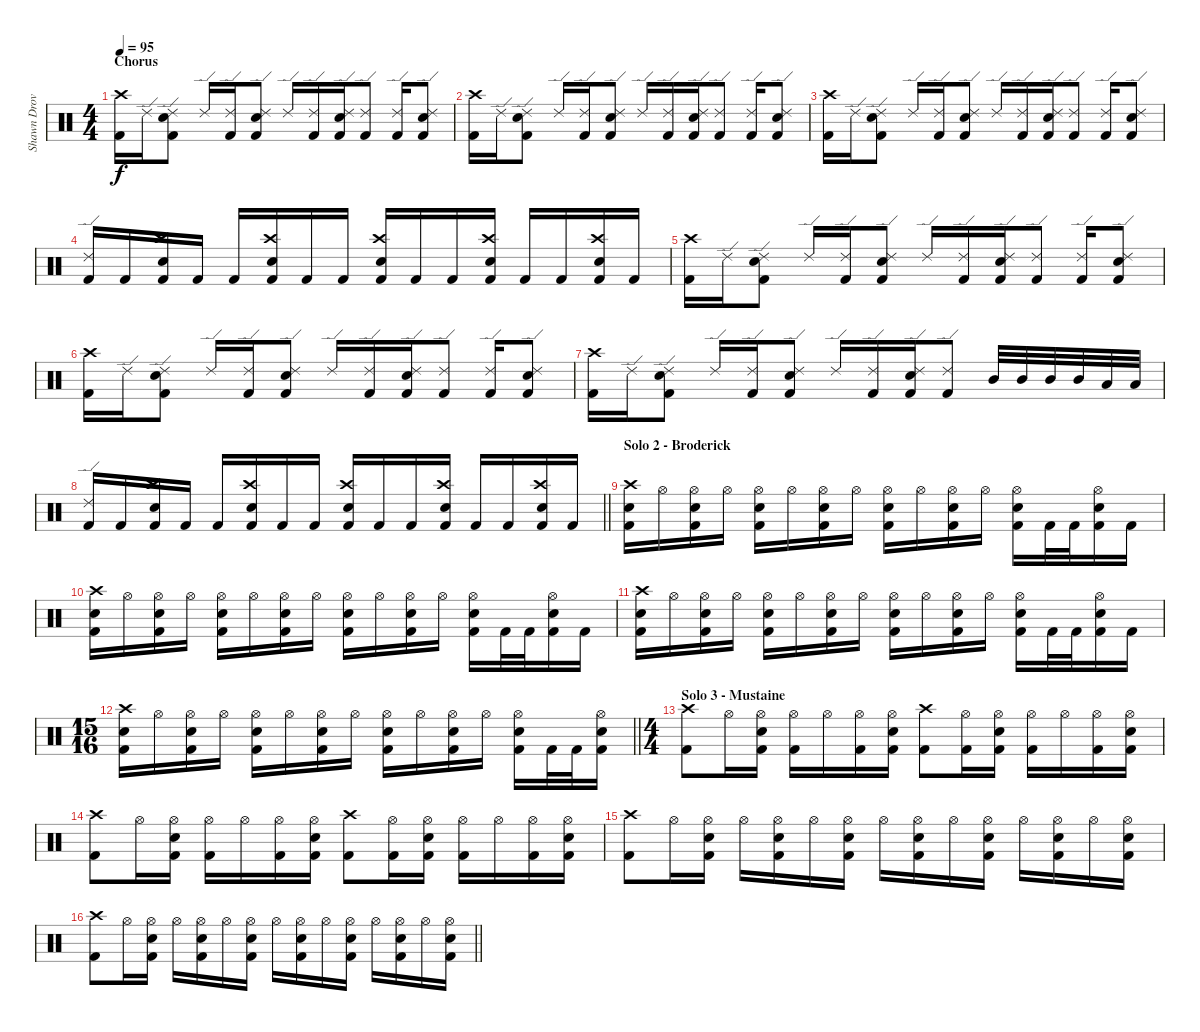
\track ("Shawn Drover " "Shawn Drov") {instrument percussion}
\staff {score}
\articulation defaults
\ts (4 4)
\section ("" "Chorus")
\tempo 95
\clef neutral
\ks c
("Kick (hit) 2" "Crash high (hit)").16{dy f} "Ride (edge) 2".16 ("Kick (hit) 2" "Snare (hit) 2" "Ride (edge) 2").8 "Ride (edge) 2".16 ("Kick (hit) 2" "Ride (edge) 2").16 ("Kick (hit) 2" "Snare (hit) 2" "Ride (edge) 2").8 "Ride (edge) 2".16 ("Kick (hit) 2" "Ride (edge) 2").16 ("Kick (hit) 2" "Snare (hit) 2" "Ride (edge) 2").16 ("Kick (hit) 2" "Ride (edge) 2").8 ("Kick (hit) 2" "Ride (edge) 2").16 ("Kick (hit) 2" "Snare (hit) 2" "Ride (edge) 2").8 |
("Kick (hit) 2" "Crash high (hit)").16 "Ride (edge) 2".16 ("Kick (hit) 2" "Snare (hit) 2" "Ride (edge) 2").8 "Ride (edge) 2".16 ("Kick (hit) 2" "Ride (edge) 2").16 ("Kick (hit) 2" "Snare (hit) 2" "Ride (edge) 2").8 "Ride (edge) 2".16 ("Kick (hit) 2" "Ride (edge) 2").16 ("Kick (hit) 2" "Snare (hit) 2" "Ride (edge) 2").16 ("Kick (hit) 2" "Ride (edge) 2").8 ("Kick (hit) 2" "Ride (edge) 2").16 ("Kick (hit) 2" "Snare (hit) 2" "Ride (edge) 2").8 |
("Kick (hit) 2" "Crash high (hit)").16 "Ride (edge) 2".16 ("Kick (hit) 2" "Snare (hit) 2" "Ride (edge) 2").8 "Ride (edge) 2".16 ("Kick (hit) 2" "Ride (edge) 2").16 ("Kick (hit) 2" "Snare (hit) 2" "Ride (edge) 2").8 "Ride (edge) 2".16 ("Kick (hit) 2" "Ride (edge) 2").16 ("Kick (hit) 2" "Snare (hit) 2" "Ride (edge) 2").16 ("Kick (hit) 2" "Ride (edge) 2").8 ("Kick (hit) 2" "Ride (edge) 2").16 ("Kick (hit) 2" "Snare (hit) 2" "Ride (edge) 2").8 |
("Kick (hit) 2" "Ride (edge) 2").16 "Kick (hit) 2".16 ("Kick (hit) 2" "Snare (hit) 2" "Crash high (hit)").16 "Kick (hit) 2".16 "Kick (hit) 2".16 ("Kick (hit) 2" "Snare (hit) 2" "Crash high (hit)").16 "Kick (hit) 2".16 "Kick (hit) 2".16 ("Kick (hit) 2" "Snare (hit) 2" "Crash high (hit)").16 "Kick (hit) 2".16 "Kick (hit) 2".16 ("Kick (hit) 2" "Snare (hit) 2" "Crash high (hit)").16 "Kick (hit) 2".16 "Kick (hit) 2".16 ("Kick (hit) 2" "Snare (hit) 2" "Crash high (hit)").16 "Kick (hit) 2".16 |
("Kick (hit) 2" "Crash high (hit)").16 "Ride (edge) 2".16 ("Kick (hit) 2" "Snare (hit) 2" "Ride (edge) 2").8 "Ride (edge) 2".16 ("Kick (hit) 2" "Ride (edge) 2").16 ("Kick (hit) 2" "Snare (hit) 2" "Ride (edge) 2").8 "Ride (edge) 2".16 ("Kick (hit) 2" "Ride (edge) 2").16 ("Kick (hit) 2" "Snare (hit) 2" "Ride (edge) 2").16 ("Kick (hit) 2" "Ride (edge) 2").8 ("Kick (hit) 2" "Ride (edge) 2").16 ("Kick (hit) 2" "Snare (hit) 2" "Ride (edge) 2").8 |
("Kick (hit) 2" "Crash high (hit)").16 "Ride (edge) 2".16 ("Kick (hit) 2" "Snare (hit) 2" "Ride (edge) 2").8 "Ride (edge) 2".16 ("Kick (hit) 2" "Ride (edge) 2").16 ("Kick (hit) 2" "Snare (hit) 2" "Ride (edge) 2").8 "Ride (edge) 2".16 ("Kick (hit) 2" "Ride (edge) 2").16 ("Kick (hit) 2" "Snare (hit) 2" "Ride (edge) 2").16 ("Kick (hit) 2" "Ride (edge) 2").8 ("Kick (hit) 2" "Ride (edge) 2").16 ("Kick (hit) 2" "Snare (hit) 2" "Ride (edge) 2").8 |
("Kick (hit) 2" "Crash high (hit)").16 "Ride (edge) 2".16 ("Kick (hit) 2" "Snare (hit) 2" "Ride (edge) 2").8 "Ride (edge) 2".16 ("Kick (hit) 2" "Ride (edge) 2").16 ("Kick (hit) 2" "Snare (hit) 2" "Ride (edge) 2").8 "Ride (edge) 2".16 ("Kick (hit) 2" "Ride (edge) 2").16 ("Kick (hit) 2" "Snare (hit) 2" "Ride (edge) 2").16 ("Kick (hit) 2" "Ride (edge) 2").8 "Mid Tom (hit)".32 "Mid Tom (hit)".32 "Mid Tom (hit)".32 "Mid Tom (hit)".32 "Low Tom (hit)".32 "Low Tom (hit)".32 |
\barLineRight lightlight
("Kick (hit) 2" "Ride (edge) 2").16 "Kick (hit) 2".16 ("Kick (hit) 2" "Snare (hit) 2" "Crash high (hit)").16 "Kick (hit) 2".16 "Kick (hit) 2".16 ("Kick (hit) 2" "Snare (hit) 2" "Crash high (hit)").16 "Kick (hit) 2".16 "Kick (hit) 2".16 ("Kick (hit) 2" "Snare (hit) 2" "Crash high (hit)").16 "Kick (hit) 2".16 "Kick (hit) 2".16 ("Kick (hit) 2" "Snare (hit) 2" "Crash high (hit)").16 "Kick (hit) 2".16 "Kick (hit) 2".16 ("Kick (hit) 2" "Snare (hit) 2" "Crash high (hit)").16 "Kick (hit) 2".16 |
\section ("" "Solo 2 - Broderick")
("Kick (hit) 2" "Snare (hit) 2" "Crash high (hit)").16 "Hi-Hat (open)".16 ("Kick (hit) 2" "Snare (hit) 2" "Hi-Hat (open)").16 "Hi-Hat (open)".16 ("Kick (hit) 2" "Snare (hit) 2" "Hi-Hat (open)").16 "Hi-Hat (open)".16 ("Kick (hit) 2" "Snare (hit) 2" "Hi-Hat (open)").16 "Hi-Hat (open)".16 ("Kick (hit) 2" "Snare (hit) 2" "Hi-Hat (open)").16 "Hi-Hat (open)".16 ("Kick (hit) 2" "Snare (hit) 2" "Hi-Hat (open)").16 "Hi-Hat (open)".16 ("Kick (hit) 2" "Snare (hit) 2" "Hi-Hat (open)").16 "Kick (hit) 2".32 "Kick (hit) 2".32 ("Kick (hit) 2" "Snare (hit) 2" "Hi-Hat (open)").16 "Kick (hit) 2".16 |
("Kick (hit) 2" "Snare (hit) 2" "Crash high (hit)").16 "Hi-Hat (open)".16 ("Kick (hit) 2" "Snare (hit) 2" "Hi-Hat (open)").16 "Hi-Hat (open)".16 ("Kick (hit) 2" "Snare (hit) 2" "Hi-Hat (open)").16 "Hi-Hat (open)".16 ("Kick (hit) 2" "Snare (hit) 2" "Hi-Hat (open)").16 "Hi-Hat (open)".16 ("Kick (hit) 2" "Snare (hit) 2" "Hi-Hat (open)").16 "Hi-Hat (open)".16 ("Kick (hit) 2" "Snare (hit) 2" "Hi-Hat (open)").16 "Hi-Hat (open)".16 ("Kick (hit) 2" "Snare (hit) 2" "Hi-Hat (open)").16 "Kick (hit) 2".32 "Kick (hit) 2".32 ("Kick (hit) 2" "Snare (hit) 2" "Hi-Hat (open)").16 "Kick (hit) 2".16 |
("Kick (hit) 2" "Snare (hit) 2" "Crash high (hit)").16 "Hi-Hat (open)".16 ("Kick (hit) 2" "Snare (hit) 2" "Hi-Hat (open)").16 "Hi-Hat (open)".16 ("Kick (hit) 2" "Snare (hit) 2" "Hi-Hat (open)").16 "Hi-Hat (open)".16 ("Kick (hit) 2" "Snare (hit) 2" "Hi-Hat (open)").16 "Hi-Hat (open)".16 ("Kick (hit) 2" "Snare (hit) 2" "Hi-Hat (open)").16 "Hi-Hat (open)".16 ("Kick (hit) 2" "Snare (hit) 2" "Hi-Hat (open)").16 "Hi-Hat (open)".16 ("Kick (hit) 2" "Snare (hit) 2" "Hi-Hat (open)").16 "Kick (hit) 2".32 "Kick (hit) 2".32 ("Kick (hit) 2" "Snare (hit) 2" "Hi-Hat (open)").16 "Kick (hit) 2".16 |
\ts (15 16)
\barLineRight lightlight
("Kick (hit) 2" "Snare (hit) 2" "Crash high (hit)").16 "Hi-Hat (open)".16 ("Kick (hit) 2" "Snare (hit) 2" "Hi-Hat (open)").16 "Hi-Hat (open)".16 ("Kick (hit) 2" "Snare (hit) 2" "Hi-Hat (open)").16 "Hi-Hat (open)".16 ("Kick (hit) 2" "Snare (hit) 2" "Hi-Hat (open)").16 "Hi-Hat (open)".16 ("Kick (hit) 2" "Snare (hit) 2" "Hi-Hat (open)").16 "Hi-Hat (open)".16 ("Kick (hit) 2" "Snare (hit) 2" "Hi-Hat (open)").16 "Hi-Hat (open)".16 ("Kick (hit) 2" "Snare (hit) 2" "Hi-Hat (open)").16 "Kick (hit) 2".32 "Kick (hit) 2".32 ("Kick (hit) 2" "Snare (hit) 2" "Hi-Hat (open)").16 |
\ts (4 4)
\section ("" "Solo 3 - Mustaine")
("Kick (hit) 2" "Crash high (hit)").8 "Hi-Hat (open)".16 ("Kick (hit) 2" "Snare (hit) 2" "Hi-Hat (open)").16 ("Kick (hit) 2" "Hi-Hat (open)").16 "Hi-Hat (open)".16 ("Kick (hit) 2" "Hi-Hat (open)").16 ("Kick (hit) 2" "Snare (hit) 2" "Hi-Hat (open)").16 ("Kick (hit) 2" "Crash high (hit)").8 ("Kick (hit) 2" "Hi-Hat (open)").16 ("Kick (hit) 2" "Snare (hit) 2" "Hi-Hat (open)").16 ("Kick (hit) 2" "Hi-Hat (open)").16 "Hi-Hat (open)".16 ("Kick (hit) 2" "Hi-Hat (open)").16 ("Kick (hit) 2" "Snare (hit) 2" "Hi-Hat (open)").16 |
("Kick (hit) 2" "Crash high (hit)").8 "Hi-Hat (open)".16 ("Kick (hit) 2" "Snare (hit) 2" "Hi-Hat (open)").16 ("Kick (hit) 2" "Hi-Hat (open)").16 "Hi-Hat (open)".16 ("Kick (hit) 2" "Hi-Hat (open)").16 ("Kick (hit) 2" "Snare (hit) 2" "Hi-Hat (open)").16 ("Kick (hit) 2" "Crash high (hit)").8 ("Kick (hit) 2" "Hi-Hat (open)").16 ("Kick (hit) 2" "Snare (hit) 2" "Hi-Hat (open)").16 ("Kick (hit) 2" "Hi-Hat (open)").16 "Hi-Hat (open)".16 ("Kick (hit) 2" "Hi-Hat (open)").16 ("Kick (hit) 2" "Snare (hit) 2" "Hi-Hat (open)").16 |
("Kick (hit) 2" "Crash high (hit)").8 "Hi-Hat (open)".16 ("Kick (hit) 2" "Snare (hit) 2" "Hi-Hat (open)").16 "Hi-Hat (open)".16 ("Kick (hit) 2" "Snare (hit) 2" "Hi-Hat (open)").16 "Hi-Hat (open)".16 ("Kick (hit) 2" "Snare (hit) 2" "Hi-Hat (open)").16 "Hi-Hat (open)".16 ("Kick (hit) 2" "Snare (hit) 2" "Hi-Hat (open)").16 "Hi-Hat (open)".16 ("Kick (hit) 2" "Snare (hit) 2" "Hi-Hat (open)").16 "Hi-Hat (open)".16 ("Kick (hit) 2" "Snare (hit) 2" "Hi-Hat (open)").16 "Hi-Hat (open)".16 ("Kick (hit) 2" "Snare (hit) 2" "Hi-Hat (open)").16 |
\barLineRight lightlight
("Kick (hit) 2" "Crash high (hit)").8 "Hi-Hat (open)".16 ("Kick (hit) 2" "Snare (hit) 2" "Hi-Hat (open)").16 "Hi-Hat (open)".16 ("Kick (hit) 2" "Snare (hit) 2" "Hi-Hat (open)").16 "Hi-Hat (open)".16 ("Kick (hit) 2" "Snare (hit) 2" "Hi-Hat (open)").16 "Hi-Hat (open)".16 ("Kick (hit) 2" "Snare (hit) 2" "Hi-Hat (open)").16 "Hi-Hat (open)".16 ("Kick (hit) 2" "Snare (hit) 2" "Hi-Hat (open)").16 "Hi-Hat (open)".16 ("Kick (hit) 2" "Snare (hit) 2" "Hi-Hat (open)").16 "Hi-Hat (open)".16 ("Kick (hit) 2" "Snare (hit) 2" "Hi-Hat (open)").16
